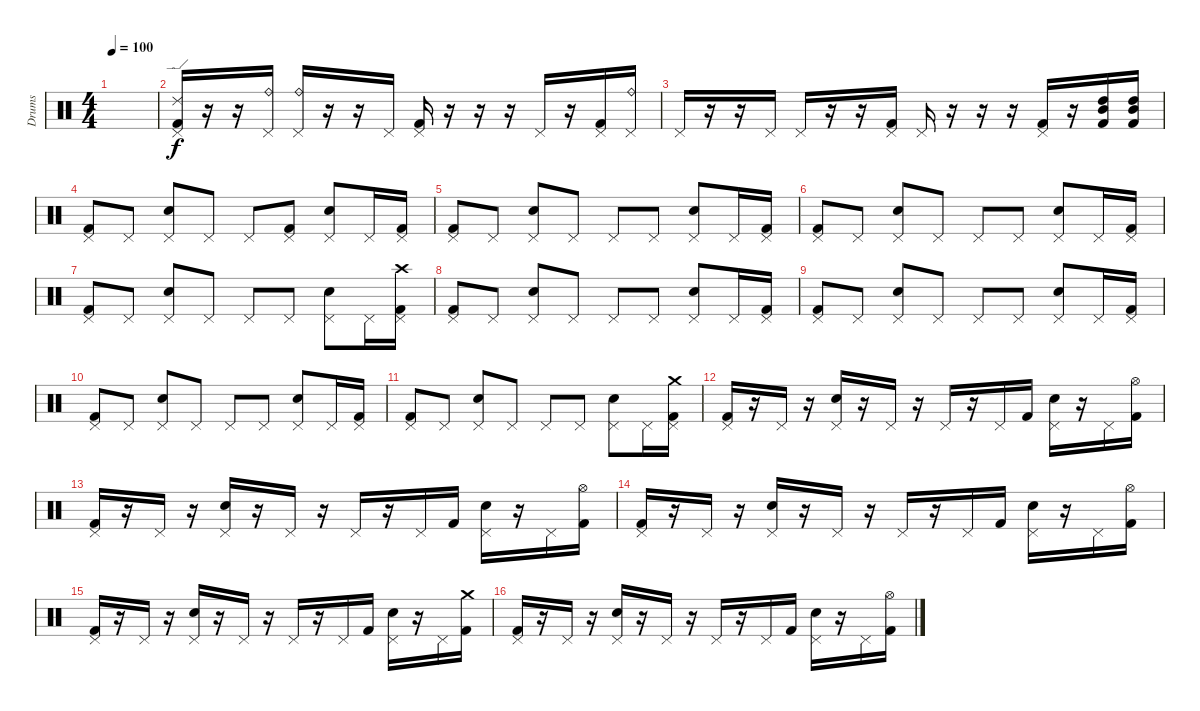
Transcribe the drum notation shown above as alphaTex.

\track ("Drums" "Drums") {instrument percussion}
\staff {score}
\articulation defaults
\ts (4 4)
\tempo 100
\clef neutral
\ks c
|
("Kick (hit) 2" "Pedal Hi-Hat (hit)" "Ride (edge) 2").16 r.16 r.16 ("Pedal Hi-Hat (hit)" "Ride (bell)").16 ("Pedal Hi-Hat (hit)" "Ride (bell)").16 r.16 r.16 "Pedal Hi-Hat (hit)".16 ("Pedal Hi-Hat (hit)" "Kick (hit) 2").16 r.16 r.16 r.16 "Pedal Hi-Hat (hit)".16 r.16 ("Kick (hit) 2" "Pedal Hi-Hat (hit)").16 ("Pedal Hi-Hat (hit)" "Ride (bell)").16 |
"Pedal Hi-Hat (hit)".16 r.16 r.16 "Pedal Hi-Hat (hit)".16 "Pedal Hi-Hat (hit)".16 r.16 r.16 ("Kick (hit) 2" "Pedal Hi-Hat (hit)").16 "Pedal Hi-Hat (hit)".16 r.16 r.16 r.16 ("Kick (hit) 2" "Pedal Hi-Hat (hit)").16 r.16 ("Mid Tom (hit)" "Kick (hit) 2" "High Tom (hit)").16 ("Mid Tom (hit)" "Kick (hit) 2" "High Tom (hit)").16 |
("Pedal Hi-Hat (hit)" "Kick (hit) 2").8 "Pedal Hi-Hat (hit)".8 ("Pedal Hi-Hat (hit)" "Snare (hit) 2").8 "Pedal Hi-Hat (hit)".8 "Pedal Hi-Hat (hit)".8 ("Pedal Hi-Hat (hit)" "Kick (hit) 2").8 ("Pedal Hi-Hat (hit)" "Snare (hit) 2").8 "Pedal Hi-Hat (hit)".16 ("Pedal Hi-Hat (hit)" "Kick (hit) 2").16 |
("Pedal Hi-Hat (hit)" "Kick (hit) 2").8 "Pedal Hi-Hat (hit)".8 ("Pedal Hi-Hat (hit)" "Snare (hit) 2").8 "Pedal Hi-Hat (hit)".8 "Pedal Hi-Hat (hit)".8 "Pedal Hi-Hat (hit)".8 ("Pedal Hi-Hat (hit)" "Snare (hit) 2").8 "Pedal Hi-Hat (hit)".16 ("Pedal Hi-Hat (hit)" "Kick (hit) 2").16 |
("Pedal Hi-Hat (hit)" "Kick (hit) 2").8 "Pedal Hi-Hat (hit)".8 ("Pedal Hi-Hat (hit)" "Snare (hit) 2").8 "Pedal Hi-Hat (hit)".8 "Pedal Hi-Hat (hit)".8 "Pedal Hi-Hat (hit)".8 ("Pedal Hi-Hat (hit)" "Snare (hit) 2").8 "Pedal Hi-Hat (hit)".16 ("Pedal Hi-Hat (hit)" "Kick (hit) 2").16 |
("Pedal Hi-Hat (hit)" "Kick (hit) 2").8 "Pedal Hi-Hat (hit)".8 ("Pedal Hi-Hat (hit)" "Snare (hit) 2").8 "Pedal Hi-Hat (hit)".8 "Pedal Hi-Hat (hit)".8 "Pedal Hi-Hat (hit)".8 ("Pedal Hi-Hat (hit)" "Snare (hit) 2").8 "Pedal Hi-Hat (hit)".16 ("Pedal Hi-Hat (hit)" "Crash high (hit)" "Kick (hit) 2").16 |
("Pedal Hi-Hat (hit)" "Kick (hit) 2").8 "Pedal Hi-Hat (hit)".8 ("Pedal Hi-Hat (hit)" "Snare (hit) 2").8 "Pedal Hi-Hat (hit)".8 "Pedal Hi-Hat (hit)".8 "Pedal Hi-Hat (hit)".8 ("Pedal Hi-Hat (hit)" "Snare (hit) 2").8 "Pedal Hi-Hat (hit)".16 ("Pedal Hi-Hat (hit)" "Kick (hit) 2").16 |
("Pedal Hi-Hat (hit)" "Kick (hit) 2").8 "Pedal Hi-Hat (hit)".8 ("Pedal Hi-Hat (hit)" "Snare (hit) 2").8 "Pedal Hi-Hat (hit)".8 "Pedal Hi-Hat (hit)".8 "Pedal Hi-Hat (hit)".8 ("Pedal Hi-Hat (hit)" "Snare (hit) 2").8 "Pedal Hi-Hat (hit)".16 ("Pedal Hi-Hat (hit)" "Kick (hit) 2").16 |
("Pedal Hi-Hat (hit)" "Kick (hit) 2").8 "Pedal Hi-Hat (hit)".8 ("Pedal Hi-Hat (hit)" "Snare (hit) 2").8 "Pedal Hi-Hat (hit)".8 "Pedal Hi-Hat (hit)".8 "Pedal Hi-Hat (hit)".8 ("Pedal Hi-Hat (hit)" "Snare (hit) 2").8 "Pedal Hi-Hat (hit)".16 ("Pedal Hi-Hat (hit)" "Kick (hit) 2").16 |
("Pedal Hi-Hat (hit)" "Kick (hit) 2").8 "Pedal Hi-Hat (hit)".8 ("Pedal Hi-Hat (hit)" "Snare (hit) 2").8 "Pedal Hi-Hat (hit)".8 "Pedal Hi-Hat (hit)".8 "Pedal Hi-Hat (hit)".8 ("Pedal Hi-Hat (hit)" "Snare (hit) 2").8 "Pedal Hi-Hat (hit)".16 ("Pedal Hi-Hat (hit)" "Crash medium (hit)" "Kick (hit) 2").16 |
("Pedal Hi-Hat (hit)" "Kick (hit) 2").16 r.16 "Pedal Hi-Hat (hit)".16 r.16 ("Pedal Hi-Hat (hit)" "Snare (hit) 2").16 r.16 "Pedal Hi-Hat (hit)".16 r.16 "Pedal Hi-Hat (hit)".16 r.16 "Pedal Hi-Hat (hit)".16 "Kick (hit) 2".16 ("Pedal Hi-Hat (hit)" "Snare (hit) 2").16 r.16 "Pedal Hi-Hat (hit)".16 ("Hi-Hat (open)" "Kick (hit) 2").16 |
("Pedal Hi-Hat (hit)" "Kick (hit) 2").16 r.16 "Pedal Hi-Hat (hit)".16 r.16 ("Pedal Hi-Hat (hit)" "Snare (hit) 2").16 r.16 "Pedal Hi-Hat (hit)".16 r.16 "Pedal Hi-Hat (hit)".16 r.16 "Pedal Hi-Hat (hit)".16 "Kick (hit) 2".16 ("Pedal Hi-Hat (hit)" "Snare (hit) 2").16 r.16 "Pedal Hi-Hat (hit)".16 ("Hi-Hat (open)" "Kick (hit) 2").16 |
("Pedal Hi-Hat (hit)" "Kick (hit) 2").16 r.16 "Pedal Hi-Hat (hit)".16 r.16 ("Pedal Hi-Hat (hit)" "Snare (hit) 2").16 r.16 "Pedal Hi-Hat (hit)".16 r.16 "Pedal Hi-Hat (hit)".16 r.16 "Pedal Hi-Hat (hit)".16 "Kick (hit) 2".16 ("Pedal Hi-Hat (hit)" "Snare (hit) 2").16 r.16 "Pedal Hi-Hat (hit)".16 ("Hi-Hat (open)" "Kick (hit) 2").16 |
("Pedal Hi-Hat (hit)" "Kick (hit) 2").16 r.16 "Pedal Hi-Hat (hit)".16 r.16 ("Pedal Hi-Hat (hit)" "Snare (hit) 2").16 r.16 "Pedal Hi-Hat (hit)".16 r.16 "Pedal Hi-Hat (hit)".16 r.16 "Pedal Hi-Hat (hit)".16 "Kick (hit) 2".16 ("Pedal Hi-Hat (hit)" "Snare (hit) 2").16 r.16 "Pedal Hi-Hat (hit)".16 ("Crash medium (hit)" "Kick (hit) 2").16 |
("Pedal Hi-Hat (hit)" "Kick (hit) 2").16 r.16 "Pedal Hi-Hat (hit)".16 r.16 ("Pedal Hi-Hat (hit)" "Snare (hit) 2").16 r.16 "Pedal Hi-Hat (hit)".16 r.16 "Pedal Hi-Hat (hit)".16 r.16 "Pedal Hi-Hat (hit)".16 "Kick (hit) 2".16 ("Pedal Hi-Hat (hit)" "Snare (hit) 2").16 r.16 "Pedal Hi-Hat (hit)".16 ("Hi-Hat (open)" "Kick (hit) 2").16
